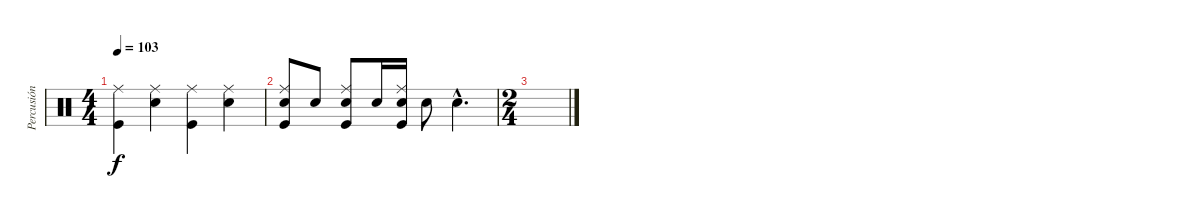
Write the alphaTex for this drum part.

\track ("Percusión" "Percusión") {instrument percussion}
\staff {score}
\articulation defaults
\ts (4 4)
\tempo 103
\clef neutral
\ks c
("Kick (hit)" "Ride (middle)").4{dy f} ("Electric Snare (hit)" "Ride (middle)").4 ("Kick (hit)" "Ride (middle)").4 ("Electric Snare (hit)" "Ride (middle)").4 |
("Electric Snare (hit)" "Kick (hit)" "Ride (middle)").8 "Electric Snare (hit)".8 ("Electric Snare (hit)" "Kick (hit)" "Ride (middle)").8 "Electric Snare (hit)".16 ("Electric Snare (hit)" "Kick (hit)" "Ride (middle)").16 "Electric Snare (hit)".8 "Electric Snare (hit)"{hac}.4{d} |
\ts (2 4)
